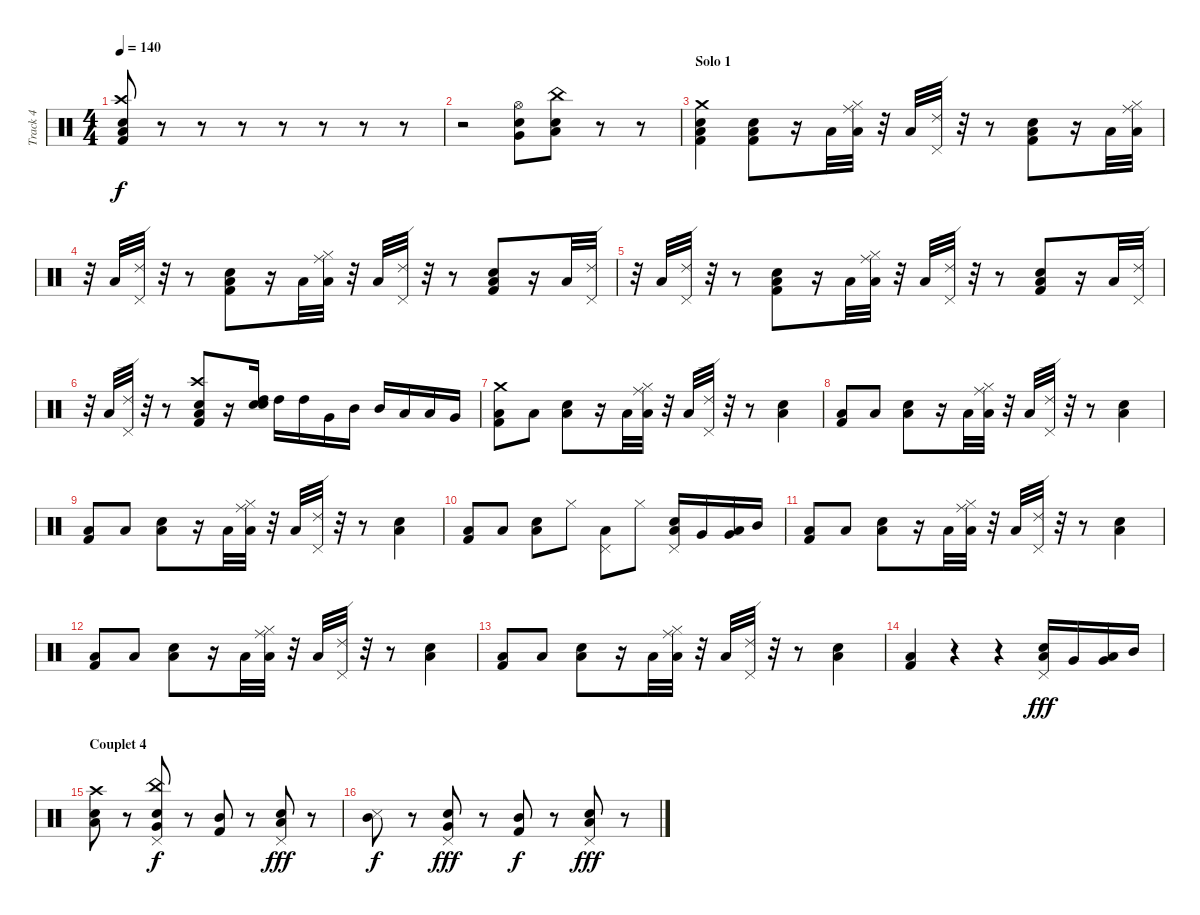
\track ("Track 4" "Track 4") {instrument percussion}
\staff {score}
\articulation defaults
\ts (4 4)
\tempo 140
\clef neutral
\ks c
("Low Tom (hit)" "Snare (hit) 2" "Crash high (hit)" "Kick (hit) 2").8{dy f} r.8 r.8 r.8 r.8 r.8 r.8 r.8 |
r.2 ("Very Low Tom (hit)" "Electric Snare (hit)" "Hi-Hat (open)").8 ("Low Floor Tom (hit)" "Snare (hit) 2" "China (hit)").8 r.8 r.8 |
\section ("" "Solo 1")
("Low Tom (hit)" "Kick (hit) 2" "Snare (hit) 2" "Crash medium (hit)").4 ("Low Tom (hit)" "Snare (hit) 2" "Kick (hit) 2").8 r.16 "Low Tom (hit)".32 ("Ride (middle)" "Hi-Hat (closed)" "Low Floor Tom (hit)").32 r.32 "Low Tom (hit)".32 ("Ride (edge) 2" "Pedal Hi-Hat (hit)").32 r.32 r.8 ("Low Tom (hit)" "Snare (hit) 2" "Kick (hit) 2").8 r.16 "Low Tom (hit)".32 ("Ride (middle)" "Hi-Hat (closed)" "Low Floor Tom (hit)").32 |
r.32 "Low Tom (hit)".32 ("Ride (edge) 2" "Pedal Hi-Hat (hit)").32 r.32 r.8 ("Low Tom (hit)" "Snare (hit) 2" "Kick (hit) 2").8 r.16 "Low Tom (hit)".32 ("Ride (middle)" "Hi-Hat (closed)" "Low Floor Tom (hit)").32 r.32 "Low Tom (hit)".32 ("Ride (edge) 2" "Pedal Hi-Hat (hit)").32 r.32 r.8 ("Low Tom (hit)" "Snare (hit) 2" "Kick (hit) 2").8 r.16 "Low Tom (hit)".32 ("Ride (edge) 2" "Pedal Hi-Hat (hit)").32 |
r.32 "Low Tom (hit)".32 ("Ride (edge) 2" "Pedal Hi-Hat (hit)").32 r.32 r.8 ("Low Tom (hit)" "Snare (hit) 2" "Kick (hit) 2").8 r.16 "Low Tom (hit)".32 ("Ride (middle)" "Hi-Hat (closed)" "Low Floor Tom (hit)").32 r.32 "Low Tom (hit)".32 ("Ride (edge) 2" "Pedal Hi-Hat (hit)").32 r.32 r.8 ("Low Tom (hit)" "Snare (hit) 2" "Kick (hit) 2").8 r.16 "Low Tom (hit)".32 ("Ride (edge) 2" "Pedal Hi-Hat (hit)").32 |
r.32 "Low Tom (hit)".32 ("Ride (edge) 2" "Pedal Hi-Hat (hit)").32 r.32 r.8 ("Low Tom (hit)" "Snare (hit) 2" "Kick (hit) 2" "Crash high (hit)").8 r.16 ("High Tom (hit)" "Electric Snare (hit)" "Snare (hit) 2").16 "High Tom (hit)".16 "High Tom (hit)".16 "Very Low Tom (hit)".16 "Mid Tom (hit)".16 "Mid Tom (hit)".16 "Low Tom (hit)".16 "Low Tom (hit)".16 "Very Low Tom (hit)".16 |
("Low Tom (hit)" "Kick (hit) 2" "Crash medium (hit)").8 "Low Floor Tom (hit)".8 ("Low Tom (hit)" "Snare (hit) 2").8 r.16 "Low Tom (hit)".32 ("Ride (middle)" "Hi-Hat (closed)" "Low Floor Tom (hit)").32 r.32 "Low Tom (hit)".32 ("Ride (edge) 2" "Pedal Hi-Hat (hit)").32 r.32 r.8 ("Low Tom (hit)" "Snare (hit) 2").4 |
("Low Tom (hit)" "Kick (hit) 2").8 "Low Floor Tom (hit)".8 ("Low Tom (hit)" "Snare (hit) 2").8 r.16 "Low Tom (hit)".32 ("Ride (middle)" "Hi-Hat (closed)" "Low Floor Tom (hit)").32 r.32 "Low Tom (hit)".32 ("Ride (edge) 2" "Pedal Hi-Hat (hit)").32 r.32 r.8 ("Low Tom (hit)" "Snare (hit) 2").4 |
("Low Tom (hit)" "Kick (hit) 2").8 "Low Floor Tom (hit)".8 ("Low Tom (hit)" "Snare (hit) 2").8 r.16 "Low Tom (hit)".32 ("Ride (middle)" "Hi-Hat (closed)" "Low Floor Tom (hit)").32 r.32 "Low Tom (hit)".32 ("Ride (edge) 2" "Pedal Hi-Hat (hit)").32 r.32 r.8 ("Low Tom (hit)" "Snare (hit) 2").4 |
("Low Tom (hit)" "Kick (hit) 2").8 "Low Floor Tom (hit)".8 ("Low Tom (hit)" "Snare (hit) 2").8 "Hi-Hat (closed)".8 ("Pedal Hi-Hat (hit)" "Low Tom (hit)").8 "Hi-Hat (closed)".8 ("Low Tom (hit)" "Pedal Hi-Hat (hit)" "Electric Snare (hit)").16 "Very Low Tom (hit)".16 ("Very Low Tom (hit)" "Low Tom (hit)").16 "Mid Tom (hit)".16 |
("Low Tom (hit)" "Kick (hit) 2").8 "Low Floor Tom (hit)".8 ("Low Tom (hit)" "Snare (hit) 2").8 r.16 "Low Tom (hit)".32 ("Ride (middle)" "Hi-Hat (closed)" "Low Floor Tom (hit)").32 r.32 "Low Tom (hit)".32 ("Ride (edge) 2" "Pedal Hi-Hat (hit)").32 r.32 r.8 ("Low Tom (hit)" "Snare (hit) 2").4 |
("Low Tom (hit)" "Kick (hit) 2").8 "Low Floor Tom (hit)".8 ("Low Tom (hit)" "Snare (hit) 2").8 r.16 "Low Tom (hit)".32 ("Ride (middle)" "Hi-Hat (closed)" "Low Floor Tom (hit)").32 r.32 "Low Tom (hit)".32 ("Ride (edge) 2" "Pedal Hi-Hat (hit)").32 r.32 r.8 ("Low Tom (hit)" "Snare (hit) 2").4 |
("Low Tom (hit)" "Kick (hit) 2").8 "Low Floor Tom (hit)".8 ("Low Tom (hit)" "Snare (hit) 2").8 r.16 "Low Tom (hit)".32 ("Ride (middle)" "Hi-Hat (closed)" "Low Floor Tom (hit)").32 r.32 "Low Tom (hit)".32 ("Ride (edge) 2" "Pedal Hi-Hat (hit)").32 r.32 r.8 ("Low Tom (hit)" "Snare (hit) 2").4 |
("Low Tom (hit)" "Kick (hit) 2").4 r.4 r.4 ("Low Tom (hit)" "Pedal Hi-Hat (hit)" "Electric Snare (hit)").16{dy fff} "Very Low Tom (hit)".16 ("Very Low Tom (hit)" "Low Tom (hit)").16 "Mid Tom (hit)".16 |
\section ("" "Couplet 4")
("Electric Snare (hit)" "Low Tom (hit)" "Crash high (hit)").8 r.8 ("Pedal Hi-Hat (hit)" "Snare (hit) 2" "Very Low Tom (hit)" "China (hit)").8{dy f} r.8 ("Mid Tom (hit)" "Kick (hit) 2").8 r.8 ("Low Tom (hit)" "Electric Snare (hit)" "Pedal Hi-Hat (hit)").8{dy fff} r.8 |
("Mid Tom (hit)" "Snare (side stick) 3").8{dy f} r.8 ("Pedal Hi-Hat (hit)" "Snare (hit) 2" "Very Low Tom (hit)").8{dy fff} r.8 ("Mid Tom (hit)" "Kick (hit) 2").8{dy f} r.8 ("Low Tom (hit)" "Electric Snare (hit)" "Pedal Hi-Hat (hit)").8{dy fff} r.8
